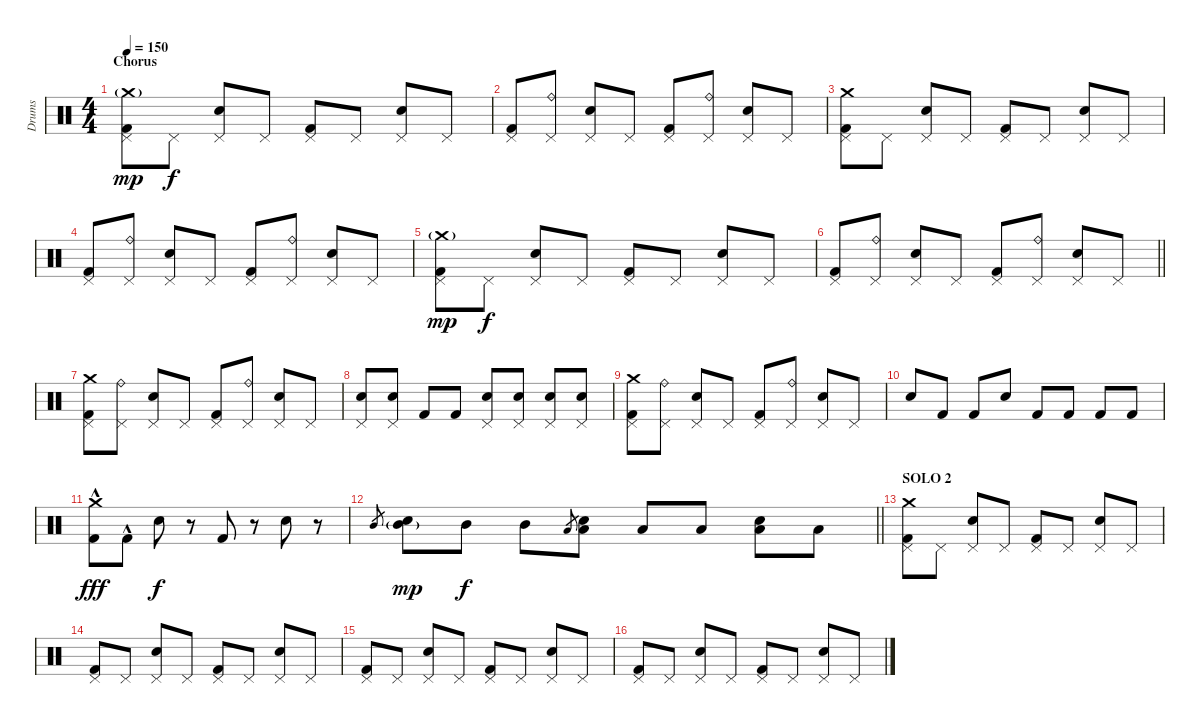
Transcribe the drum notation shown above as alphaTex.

\track ("Drums" "Drums") {instrument percussion}
\staff {score}
\articulation defaults
\ts (4 4)
\section ("" "Chorus")
\tempo 150
\clef neutral
\ks c
("Crash medium (hit)"{g} "Pedal Hi-Hat (hit)" "Kick (hit) 2").8{dy mp} "Pedal Hi-Hat (hit)".8{dy f} ("Pedal Hi-Hat (hit)" "Electric Snare (hit)").8 "Pedal Hi-Hat (hit)".8 ("Pedal Hi-Hat (hit)" "Kick (hit) 2").8 "Pedal Hi-Hat (hit)".8 ("Pedal Hi-Hat (hit)" "Electric Snare (hit)").8 "Pedal Hi-Hat (hit)".8 |
("Pedal Hi-Hat (hit)" "Kick (hit) 2").8 ("Ride (bell)" "Pedal Hi-Hat (hit)").8 ("Pedal Hi-Hat (hit)" "Electric Snare (hit)").8 "Pedal Hi-Hat (hit)".8 ("Pedal Hi-Hat (hit)" "Kick (hit) 2").8 ("Ride (bell)" "Pedal Hi-Hat (hit)").8 ("Pedal Hi-Hat (hit)" "Electric Snare (hit)").8 "Pedal Hi-Hat (hit)".8 |
("Crash medium (hit)" "Pedal Hi-Hat (hit)" "Kick (hit) 2").8 "Pedal Hi-Hat (hit)".8 ("Pedal Hi-Hat (hit)" "Electric Snare (hit)").8 "Pedal Hi-Hat (hit)".8 ("Pedal Hi-Hat (hit)" "Kick (hit) 2").8 "Pedal Hi-Hat (hit)".8 ("Pedal Hi-Hat (hit)" "Electric Snare (hit)").8 "Pedal Hi-Hat (hit)".8 |
("Pedal Hi-Hat (hit)" "Kick (hit) 2").8 ("Ride (bell)" "Pedal Hi-Hat (hit)").8 ("Pedal Hi-Hat (hit)" "Electric Snare (hit)").8 "Pedal Hi-Hat (hit)".8 ("Pedal Hi-Hat (hit)" "Kick (hit) 2").8 ("Ride (bell)" "Pedal Hi-Hat (hit)").8 ("Pedal Hi-Hat (hit)" "Electric Snare (hit)").8 "Pedal Hi-Hat (hit)".8 |
("Crash medium (hit)"{g} "Pedal Hi-Hat (hit)" "Kick (hit) 2").8{dy mp} "Pedal Hi-Hat (hit)".8{dy f} ("Pedal Hi-Hat (hit)" "Electric Snare (hit)").8 "Pedal Hi-Hat (hit)".8 ("Pedal Hi-Hat (hit)" "Kick (hit) 2").8 "Pedal Hi-Hat (hit)".8 ("Pedal Hi-Hat (hit)" "Electric Snare (hit)").8 "Pedal Hi-Hat (hit)".8 |
\barLineRight lightlight
("Pedal Hi-Hat (hit)" "Kick (hit) 2").8 ("Ride (bell)" "Pedal Hi-Hat (hit)").8 ("Pedal Hi-Hat (hit)" "Electric Snare (hit)").8 "Pedal Hi-Hat (hit)".8 ("Pedal Hi-Hat (hit)" "Kick (hit) 2").8 ("Ride (bell)" "Pedal Hi-Hat (hit)").8 ("Pedal Hi-Hat (hit)" "Electric Snare (hit)").8 "Pedal Hi-Hat (hit)".8 |
("Crash medium (hit)" "Pedal Hi-Hat (hit)" "Kick (hit) 2").8 ("Ride (bell)" "Pedal Hi-Hat (hit)").8 ("Pedal Hi-Hat (hit)" "Electric Snare (hit)").8 "Pedal Hi-Hat (hit)".8 ("Pedal Hi-Hat (hit)" "Kick (hit) 2").8 ("Ride (bell)" "Pedal Hi-Hat (hit)").8 ("Pedal Hi-Hat (hit)" "Electric Snare (hit)").8 "Pedal Hi-Hat (hit)".8 |
("Pedal Hi-Hat (hit)" "Electric Snare (hit)").8 ("Pedal Hi-Hat (hit)" "Electric Snare (hit)").8 "Kick (hit) 2".8 "Kick (hit) 2".8 ("Pedal Hi-Hat (hit)" "Electric Snare (hit)").8 ("Pedal Hi-Hat (hit)" "Electric Snare (hit)").8 ("Pedal Hi-Hat (hit)" "Electric Snare (hit)").8 ("Pedal Hi-Hat (hit)" "Electric Snare (hit)").8 |
("Crash medium (hit)" "Pedal Hi-Hat (hit)" "Kick (hit) 2").8 ("Ride (bell)" "Pedal Hi-Hat (hit)").8 ("Pedal Hi-Hat (hit)" "Electric Snare (hit)").8 "Pedal Hi-Hat (hit)".8 ("Pedal Hi-Hat (hit)" "Kick (hit) 2").8 ("Ride (bell)" "Pedal Hi-Hat (hit)").8 ("Pedal Hi-Hat (hit)" "Electric Snare (hit)").8 "Pedal Hi-Hat (hit)".8 |
"Electric Snare (hit)".8 "Kick (hit) 2".8 "Kick (hit) 2".8 "Electric Snare (hit)".8 "Kick (hit) 2".8 "Kick (hit) 2".8 "Kick (hit) 2".8 "Kick (hit) 2".8 |
("Crash medium (hit)" "Kick (hit) 2"{hac}).8{dy fff} "Kick (hit) 2"{hac}.8 "Electric Snare (hit)".8{dy f} r.8 "Kick (hit) 2".8 r.8 "Electric Snare (hit)".8 r.8 |
\barLineRight lightlight "Mid Tom (hit)".8{gr}
("Electric Snare (hit)" "Mid Tom (hit)"{g}).8{dy mp} "Mid Tom (hit)".8{dy f} "Mid Tom (hit)".8 "Low Tom (hit)".8{gr} ("Low Tom (hit)" "Electric Snare (hit)").8 "Low Tom (hit)".8 "Low Tom (hit)".8 ("Low Tom (hit)" "Electric Snare (hit)").8 "Low Tom (hit)".8 |
\section ("" "SOLO 2")
("Crash medium (hit)" "Pedal Hi-Hat (hit)" "Kick (hit) 2").8 "Pedal Hi-Hat (hit)".8 ("Pedal Hi-Hat (hit)" "Electric Snare (hit)").8 "Pedal Hi-Hat (hit)".8 ("Pedal Hi-Hat (hit)" "Kick (hit) 2").8 "Pedal Hi-Hat (hit)".8 ("Pedal Hi-Hat (hit)" "Electric Snare (hit)").8 "Pedal Hi-Hat (hit)".8 |
("Pedal Hi-Hat (hit)" "Kick (hit) 2").8 "Pedal Hi-Hat (hit)".8 ("Pedal Hi-Hat (hit)" "Electric Snare (hit)").8 "Pedal Hi-Hat (hit)".8 ("Pedal Hi-Hat (hit)" "Kick (hit) 2").8 "Pedal Hi-Hat (hit)".8 ("Pedal Hi-Hat (hit)" "Electric Snare (hit)").8 "Pedal Hi-Hat (hit)".8 |
("Pedal Hi-Hat (hit)" "Kick (hit) 2").8 "Pedal Hi-Hat (hit)".8 ("Pedal Hi-Hat (hit)" "Electric Snare (hit)").8 "Pedal Hi-Hat (hit)".8 ("Pedal Hi-Hat (hit)" "Kick (hit) 2").8 "Pedal Hi-Hat (hit)".8 ("Pedal Hi-Hat (hit)" "Electric Snare (hit)").8 "Pedal Hi-Hat (hit)".8 |
("Pedal Hi-Hat (hit)" "Kick (hit) 2").8 "Pedal Hi-Hat (hit)".8 ("Pedal Hi-Hat (hit)" "Electric Snare (hit)").8 "Pedal Hi-Hat (hit)".8 ("Pedal Hi-Hat (hit)" "Kick (hit) 2").8 "Pedal Hi-Hat (hit)".8 ("Pedal Hi-Hat (hit)" "Electric Snare (hit)").8 "Pedal Hi-Hat (hit)".8
